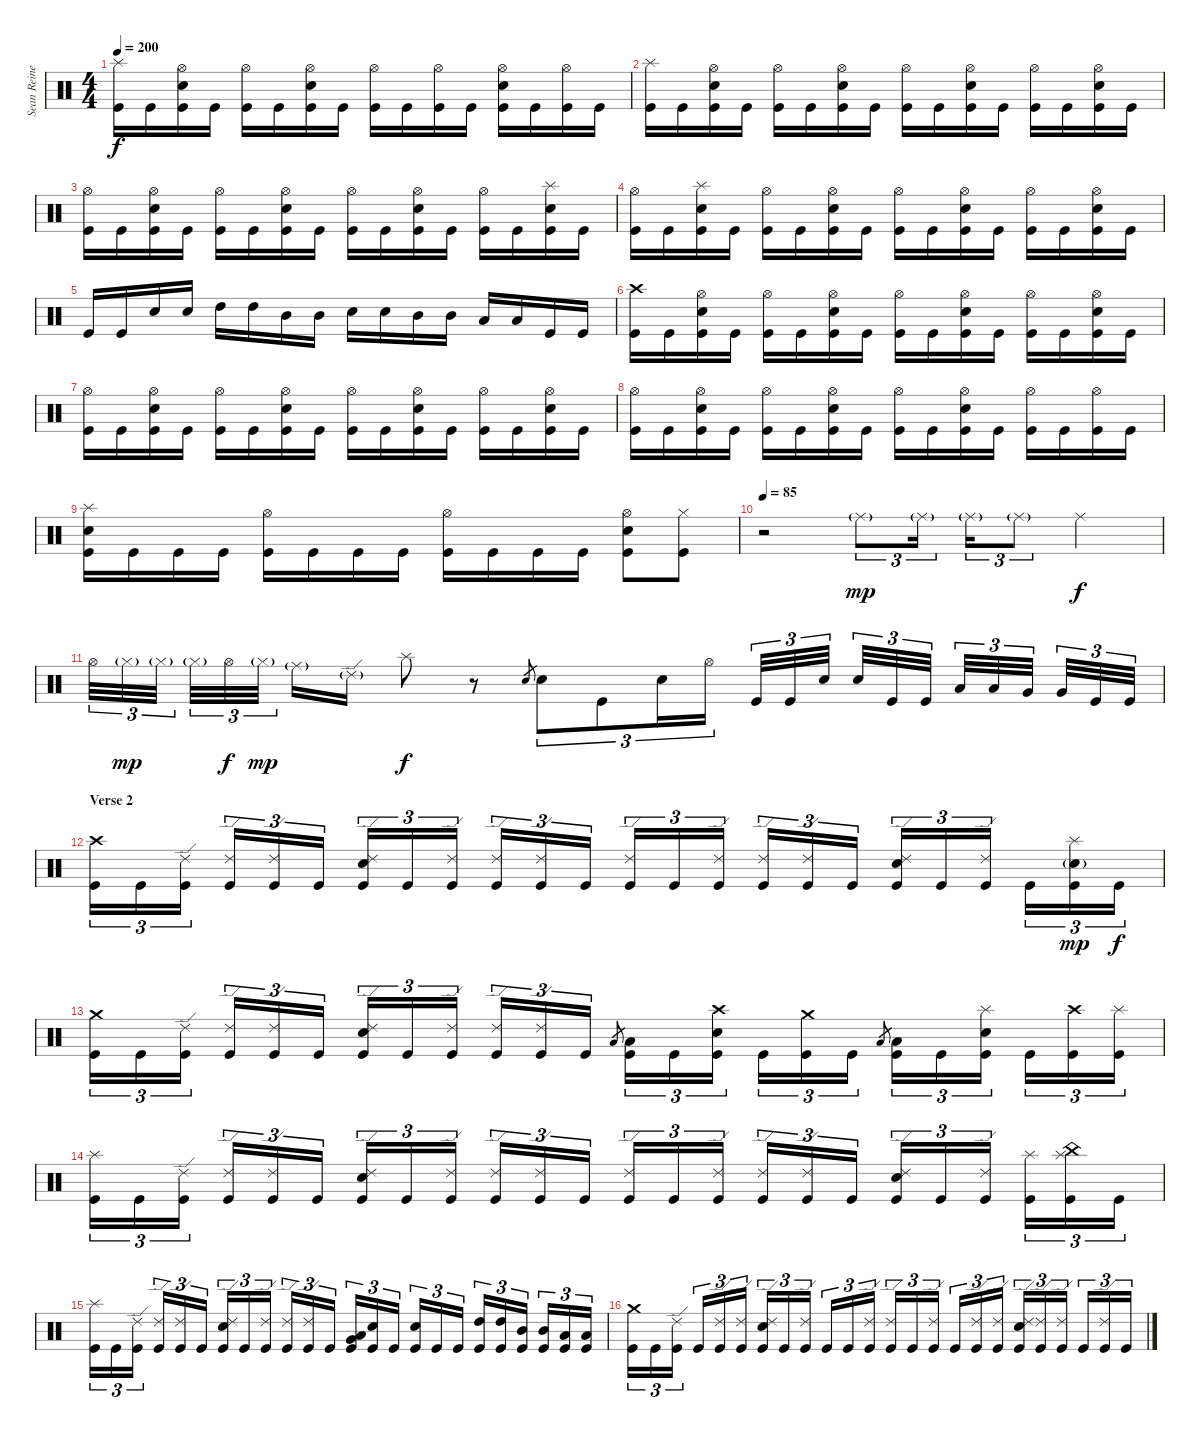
\track ("Sean Reinert " "Sean Reine") {instrument percussion}
\staff {score}
\articulation defaults
\ts (4 4)
\tempo 200
\clef neutral
\ks c
("Splash (hit)" "Kick (hit)").16{dy f} "Kick (hit)".16 ("Hi-Hat (open)" "Electric Snare (hit)" "Kick (hit)").16 "Kick (hit)".16 ("Hi-Hat (open)" "Kick (hit)").16 "Kick (hit)".16 ("Hi-Hat (open)" "Electric Snare (hit)" "Kick (hit)").16 "Kick (hit)".16 ("Hi-Hat (open)" "Kick (hit)").16 "Kick (hit)".16 ("Hi-Hat (open)" "Kick (hit)").16 "Kick (hit)".16 ("Hi-Hat (open)" "Electric Snare (hit)" "Kick (hit)").16 "Kick (hit)".16 ("Hi-Hat (open)" "Kick (hit)").16 "Kick (hit)".16 |
("Splash (hit)" "Kick (hit)").16 "Kick (hit)".16 ("Hi-Hat (open)" "Electric Snare (hit)" "Kick (hit)").16 "Kick (hit)".16 ("Hi-Hat (open)" "Kick (hit)").16 "Kick (hit)".16 ("Hi-Hat (open)" "Electric Snare (hit)" "Kick (hit)").16 "Kick (hit)".16 ("Hi-Hat (open)" "Kick (hit)").16 "Kick (hit)".16 ("Hi-Hat (open)" "Electric Snare (hit)" "Kick (hit)").16 "Kick (hit)".16 ("Hi-Hat (open)" "Kick (hit)").16 "Kick (hit)".16 ("Hi-Hat (open)" "Electric Snare (hit)" "Kick (hit)").16 "Kick (hit)".16 |
("Hi-Hat (open)" "Kick (hit)").16 "Kick (hit)".16 ("Hi-Hat (open)" "Electric Snare (hit)" "Kick (hit)").16 "Kick (hit)".16 ("Hi-Hat (open)" "Kick (hit)").16 "Kick (hit)".16 ("Hi-Hat (open)" "Electric Snare (hit)" "Kick (hit)").16 "Kick (hit)".16 ("Hi-Hat (open)" "Kick (hit)").16 "Kick (hit)".16 ("Hi-Hat (open)" "Electric Snare (hit)" "Kick (hit)").16 "Kick (hit)".16 ("Hi-Hat (open)" "Kick (hit)").16 "Kick (hit)".16 ("Splash (hit)" "Electric Snare (hit)" "Kick (hit)").16 "Kick (hit)".16 |
("Hi-Hat (open)" "Kick (hit)").16 "Kick (hit)".16 ("Splash (hit)" "Electric Snare (hit)" "Kick (hit)").16 "Kick (hit)".16 ("Hi-Hat (open)" "Kick (hit)").16 "Kick (hit)".16 ("Hi-Hat (open)" "Electric Snare (hit)" "Kick (hit)").16 "Kick (hit)".16 ("Hi-Hat (open)" "Kick (hit)").16 "Kick (hit)".16 ("Hi-Hat (open)" "Electric Snare (hit)" "Kick (hit)").16 "Kick (hit)".16 ("Hi-Hat (open)" "Kick (hit)").16 "Kick (hit)".16 ("Hi-Hat (open)" "Electric Snare (hit)" "Kick (hit)").16 "Kick (hit)".16 |
"Kick (hit)".16 "Kick (hit)".16 "Electric Snare (hit)".16 "Electric Snare (hit)".16 "High Tom (hit)".16 "High Tom (hit)".16 "Mid Tom (hit)".16 "Mid Tom (hit)".16 "Electric Snare (hit)".16 "Electric Snare (hit)".16 "Mid Tom (hit)".16 "Mid Tom (hit)".16 "Low Tom (hit)".16 "Low Tom (hit)".16 "Kick (hit)".16 "Kick (hit)".16 |
("Crash high (hit)" "Kick (hit)").16 "Kick (hit)".16 ("Hi-Hat (open)" "Electric Snare (hit)" "Kick (hit)").16 "Kick (hit)".16 ("Hi-Hat (open)" "Kick (hit)").16 "Kick (hit)".16 ("Hi-Hat (open)" "Electric Snare (hit)" "Kick (hit)").16 "Kick (hit)".16 ("Hi-Hat (open)" "Kick (hit)").16 "Kick (hit)".16 ("Hi-Hat (open)" "Electric Snare (hit)" "Kick (hit)").16 "Kick (hit)".16 ("Hi-Hat (open)" "Kick (hit)").16 "Kick (hit)".16 ("Hi-Hat (open)" "Electric Snare (hit)" "Kick (hit)").16 "Kick (hit)".16 |
("Hi-Hat (open)" "Kick (hit)").16 "Kick (hit)".16 ("Hi-Hat (open)" "Electric Snare (hit)" "Kick (hit)").16 "Kick (hit)".16 ("Hi-Hat (open)" "Kick (hit)").16 "Kick (hit)".16 ("Hi-Hat (open)" "Electric Snare (hit)" "Kick (hit)").16 "Kick (hit)".16 ("Hi-Hat (open)" "Kick (hit)").16 "Kick (hit)".16 ("Hi-Hat (open)" "Electric Snare (hit)" "Kick (hit)").16 "Kick (hit)".16 ("Hi-Hat (open)" "Kick (hit)").16 "Kick (hit)".16 ("Hi-Hat (open)" "Electric Snare (hit)" "Kick (hit)").16 "Kick (hit)".16 |
("Hi-Hat (open)" "Kick (hit)").16 "Kick (hit)".16 ("Hi-Hat (open)" "Electric Snare (hit)" "Kick (hit)").16 "Kick (hit)".16 ("Hi-Hat (open)" "Kick (hit)").16 "Kick (hit)".16 ("Hi-Hat (open)" "Electric Snare (hit)" "Kick (hit)").16 "Kick (hit)".16 ("Hi-Hat (open)" "Kick (hit)").16 "Kick (hit)".16 ("Hi-Hat (open)" "Electric Snare (hit)" "Kick (hit)").16 "Kick (hit)".16 ("Hi-Hat (open)" "Kick (hit)").16 "Kick (hit)".16 ("Hi-Hat (open)" "Kick (hit)").16 "Kick (hit)".16 |
("Splash (hit)" "Electric Snare (hit)" "Kick (hit)").16 "Kick (hit)".16 "Kick (hit)".16 "Kick (hit)".16 ("Hi-Hat (open)" "Kick (hit)").16 "Kick (hit)".16 "Kick (hit)".16 "Kick (hit)".16 ("Hi-Hat (open)" "Kick (hit)").16 "Kick (hit)".16 "Kick (hit)".16 "Kick (hit)".16 ("Hi-Hat (open)" "Electric Snare (hit)" "Kick (hit)").8 ("Hi-Hat (closed)" "Kick (hit)").8 |
\tempo 85
r.2 "Ride (middle)"{g}.8{tu (3 2) dy mp} "Ride (middle)"{g}.16{tu (3 2)} "Ride (middle)"{g}.16{tu (3 2)} "Ride (middle)"{g}.8{tu (3 2)} "Ride (middle)".4{dy f} |
"Hi-Hat (open)".32{tu (3 2)} "Hi-Hat (closed)"{g}.32{tu (3 2) dy mp} "Hi-Hat (closed)"{g}.32{tu (3 2)} "Hi-Hat (closed)"{g}.32{tu (3 2)} "Hi-Hat (open)".32{tu (3 2) dy f} "Hi-Hat (closed)"{g}.32{tu (3 2) dy mp} "Ride (middle)"{g}.16 "Ride (edge) 2"{g}.16 "Splash (hit)".8{dy f} r.8 "Electric Snare (hit)".8{gr} "Electric Snare (hit)".8{tu (3 2)} "Kick (hit)".8{tu (3 2)} "Electric Snare (hit)".16{tu (3 2)} "Hi-Hat (open)".16{tu (3 2)} "Kick (hit)".32{tu (3 2)} "Kick (hit)".32{tu (3 2)} "Electric Snare (hit)".32{tu (3 2)} "Electric Snare (hit)".32{tu (3 2)} "Kick (hit)".32{tu (3 2)} "Kick (hit)".32{tu (3 2)} "Low Tom (hit)".32{tu (3 2)} "Low Tom (hit)".32{tu (3 2)} "Very Low Tom (hit)".32{tu (3 2)} "Very Low Tom (hit)".32{tu (3 2)} "Kick (hit)".32{tu (3 2)} "Kick (hit)".32{tu (3 2)} |
\section ("" "Verse 2")
("Crash high (hit)" "Kick (hit)").16{tu (3 2)} "Kick (hit)".16{tu (3 2)} ("Ride (edge) 2" "Kick (hit)").16{tu (3 2)} ("Ride (edge) 2" "Kick (hit)").16{tu (3 2)} ("Ride (edge) 2" "Kick (hit)").16{tu (3 2)} "Kick (hit)".16{tu (3 2)} ("Ride (edge) 2" "Electric Snare (hit)" "Kick (hit)").16{tu (3 2)} "Kick (hit)".16{tu (3 2)} ("Ride (edge) 2" "Kick (hit)").16{tu (3 2)} ("Ride (edge) 2" "Kick (hit)").16{tu (3 2)} ("Ride (edge) 2" "Kick (hit)").16{tu (3 2)} "Kick (hit)".16{tu (3 2)} ("Ride (edge) 2" "Kick (hit)").16{tu (3 2)} "Kick (hit)".16{tu (3 2)} ("Ride (edge) 2" "Kick (hit)").16{tu (3 2)} ("Ride (edge) 2" "Kick (hit)").16{tu (3 2)} ("Ride (edge) 2" "Kick (hit)").16{tu (3 2)} "Kick (hit)".16{tu (3 2)} ("Ride (edge) 2" "Electric Snare (hit)" "Kick (hit)").16{tu (3 2)} "Kick (hit)".16{tu (3 2)} ("Ride (edge) 2" "Kick (hit)").16{tu (3 2)} "Kick (hit)".16{tu (3 2)} ("Splash (hit)" "Electric Snare (hit)"{g} "Kick (hit)").16{tu (3 2) dy mp} "Kick (hit)".16{tu (3 2) dy f} |
("Crash medium (hit)" "Kick (hit)").16{tu (3 2)} "Kick (hit)".16{tu (3 2)} ("Ride (edge) 2" "Kick (hit)").16{tu (3 2)} ("Ride (edge) 2" "Kick (hit)").16{tu (3 2)} ("Ride (edge) 2" "Kick (hit)").16{tu (3 2)} "Kick (hit)".16{tu (3 2)} ("Ride (edge) 2" "Electric Snare (hit)" "Kick (hit)").16{tu (3 2)} "Kick (hit)".16{tu (3 2)} ("Ride (edge) 2" "Kick (hit)").16{tu (3 2)} ("Ride (edge) 2" "Kick (hit)").16{tu (3 2)} ("Ride (edge) 2" "Kick (hit)").16{tu (3 2)} "Kick (hit)".16{tu (3 2)} "Low Tom (hit)".8{gr} ("Low Tom (hit)" "Kick (hit)").16{tu (3 2)} "Kick (hit)".16{tu (3 2)} ("Crash high (hit)" "Electric Snare (hit)" "Kick (hit)").16{tu (3 2)} "Kick (hit)".16{tu (3 2)} ("Crash medium (hit)" "Kick (hit)").16{tu (3 2)} "Kick (hit)".16{tu (3 2)} "Low Tom (hit)".8{gr} ("Low Tom (hit)" "Kick (hit)").16{tu (3 2)} "Kick (hit)".16{tu (3 2)} ("Splash (hit)" "Electric Snare (hit)" "Kick (hit)").16{tu (3 2)} "Kick (hit)".16{tu (3 2)} ("Crash high (hit)" "Kick (hit)").16{tu (3 2)} ("Splash (hit)" "Kick (hit)").16{tu (3 2)} |
("Splash (hit)" "Kick (hit)").16{tu (3 2)} "Kick (hit)".16{tu (3 2)} ("Ride (edge) 2" "Kick (hit)").16{tu (3 2)} ("Ride (edge) 2" "Kick (hit)").16{tu (3 2)} ("Ride (edge) 2" "Kick (hit)").16{tu (3 2)} "Kick (hit)".16{tu (3 2)} ("Ride (edge) 2" "Electric Snare (hit)" "Kick (hit)").16{tu (3 2)} "Kick (hit)".16{tu (3 2)} ("Ride (edge) 2" "Kick (hit)").16{tu (3 2)} ("Ride (edge) 2" "Kick (hit)").16{tu (3 2)} ("Ride (edge) 2" "Kick (hit)").16{tu (3 2)} "Kick (hit)".16{tu (3 2)} ("Ride (edge) 2" "Kick (hit)").16{tu (3 2)} "Kick (hit)".16{tu (3 2)} ("Ride (edge) 2" "Kick (hit)").16{tu (3 2)} ("Ride (edge) 2" "Kick (hit)").16{tu (3 2)} ("Ride (edge) 2" "Kick (hit)").16{tu (3 2)} "Kick (hit)".16{tu (3 2)} ("Ride (edge) 2" "Electric Snare (hit)" "Kick (hit)").16{tu (3 2)} "Kick (hit)".16{tu (3 2)} ("Ride (edge) 2" "Kick (hit)").16{tu (3 2)} ("Splash (hit)" "Kick (hit)").16{tu (3 2)} ("Splash (hit)" "China (hit)" "Kick (hit)").16{tu (3 2)} "Kick (hit)".16{tu (3 2)} |
("Splash (hit)" "Kick (hit)").16{tu (3 2)} "Kick (hit)".16{tu (3 2)} ("Ride (edge) 2" "Kick (hit)").16{tu (3 2)} ("Ride (edge) 2" "Kick (hit)").16{tu (3 2)} ("Ride (edge) 2" "Kick (hit)").16{tu (3 2)} "Kick (hit)".16{tu (3 2)} ("Ride (edge) 2" "Electric Snare (hit)" "Kick (hit)").16{tu (3 2)} "Kick (hit)".16{tu (3 2)} ("Ride (edge) 2" "Kick (hit)").16{tu (3 2)} ("Ride (edge) 2" "Kick (hit)").16{tu (3 2)} ("Ride (edge) 2" "Kick (hit)").16{tu (3 2)} "Kick (hit)".16{tu (3 2)} ("Very Low Tom (hit)" "Low Tom (hit)" "Kick (hit)").16{tu (3 2)} ("Electric Snare (hit)" "Kick (hit)").16{tu (3 2)} "Kick (hit)".16{tu (3 2)} ("Electric Snare (hit)" "Kick (hit)").16{tu (3 2)} "Kick (hit)".16{tu (3 2)} "Kick (hit)".16{tu (3 2)} ("High Tom (hit)" "Kick (hit)").16{tu (3 2)} ("High Tom (hit)" "Kick (hit)").16{tu (3 2)} ("Mid Tom (hit)" "Kick (hit)").16{tu (3 2)} ("Mid Tom (hit)" "Kick (hit)").16{tu (3 2)} ("Low Tom (hit)" "Kick (hit)").16{tu (3 2)} ("Low Tom (hit)" "Kick (hit)").16{tu (3 2)} |
("Crash medium (hit)" "Kick (hit)").16{tu (3 2)} "Kick (hit)".16{tu (3 2)} ("Ride (edge) 2" "Kick (hit)").16{tu (3 2)} "Kick (hit)".16{tu (3 2)} ("Ride (edge) 2" "Kick (hit)").16{tu (3 2)} ("Ride (edge) 2" "Kick (hit)").16{tu (3 2)} ("Ride (edge) 2" "Electric Snare (hit)" "Kick (hit)").16{tu (3 2)} "Kick (hit)".16{tu (3 2)} ("Ride (edge) 2" "Kick (hit)").16{tu (3 2)} "Kick (hit)".16{tu (3 2)} "Kick (hit)".16{tu (3 2)} ("Ride (edge) 2" "Kick (hit)").16{tu (3 2)} ("Ride (edge) 2" "Kick (hit)").16{tu (3 2)} "Kick (hit)".16{tu (3 2)} ("Ride (edge) 2" "Kick (hit)").16{tu (3 2)} "Kick (hit)".16{tu (3 2)} ("Ride (edge) 2" "Kick (hit)").16{tu (3 2)} ("Ride (edge) 2" "Kick (hit)").16{tu (3 2)} ("Ride (edge) 2" "Electric Snare (hit)" "Kick (hit)").16{tu (3 2)} ("Ride (edge) 2" "Kick (hit)").16{tu (3 2)} ("Ride (edge) 2" "Kick (hit)").16{tu (3 2)} "Kick (hit)".16{tu (3 2)} ("Ride (edge) 2" "Kick (hit)").16{tu (3 2)} "Kick (hit)".16{tu (3 2)}
